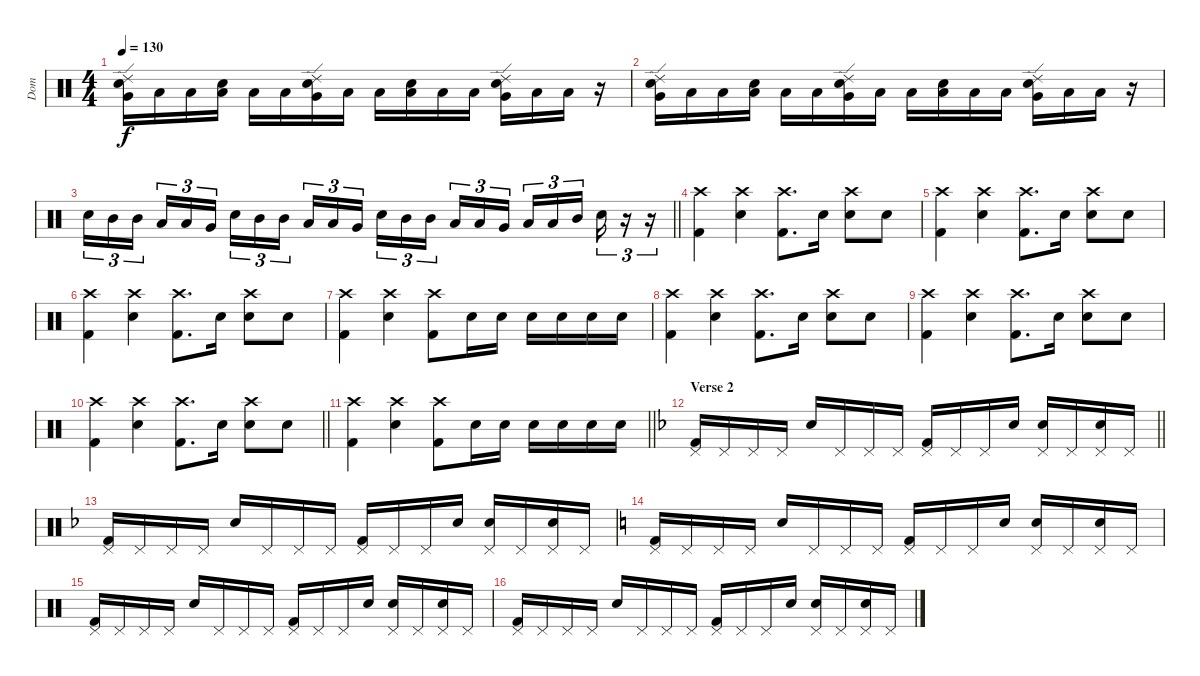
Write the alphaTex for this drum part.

\track ("Dom" "Dom") {instrument percussion}
\staff {score}
\articulation defaults
\ts (4 4)
\tempo 130
\clef neutral
\ks c
("Ride (edge) 2" "Snare (hit) 2" "Very Low Tom (hit)").16{dy f} "Low Floor Tom (hit)".16 "Low Floor Tom (hit)".16 ("Snare (hit) 2" "Low Floor Tom (hit)").16 "Low Floor Tom (hit)".16 "Low Floor Tom (hit)".16 ("Ride (edge) 2" "Snare (hit) 2" "Very Low Tom (hit)").16 "Low Floor Tom (hit)".16 "Low Floor Tom (hit)".16 ("Snare (hit) 2" "Low Floor Tom (hit)").16 "Low Floor Tom (hit)".16 "Low Floor Tom (hit)".16 ("Ride (edge) 2" "Snare (hit) 2" "Very Low Tom (hit)").16 "Low Floor Tom (hit)".16 "Low Floor Tom (hit)".16 r.16 |
("Ride (edge) 2" "Snare (hit) 2" "Very Low Tom (hit)").16 "Low Floor Tom (hit)".16 "Low Floor Tom (hit)".16 ("Snare (hit) 2" "Low Floor Tom (hit)").16 "Low Floor Tom (hit)".16 "Low Floor Tom (hit)".16 ("Ride (edge) 2" "Snare (hit) 2" "Very Low Tom (hit)").16 "Low Floor Tom (hit)".16 "Low Floor Tom (hit)".16 ("Snare (hit) 2" "Low Floor Tom (hit)").16 "Low Floor Tom (hit)".16 "Low Floor Tom (hit)".16 ("Ride (edge) 2" "Snare (hit) 2" "Very Low Tom (hit)").16 "Low Floor Tom (hit)".16 "Low Floor Tom (hit)".16 r.16 |
\barLineRight lightlight "Snare (hit) 2".16{tu (3 2)} "Mid Tom (hit)".16{tu (3 2)} "Mid Tom (hit)".16{tu (3 2) beam splitsecondary} "Low Tom (hit)".16{tu (3 2)} "Low Tom (hit)".16{tu (3 2)} "Very Low Tom (hit)".16{tu (3 2)} "Snare (hit) 2".16{tu (3 2)} "Mid Tom (hit)".16{tu (3 2)} "Mid Tom (hit)".16{tu (3 2) beam splitsecondary} "Low Tom (hit)".16{tu (3 2)} "Low Tom (hit)".16{tu (3 2)} "Very Low Tom (hit)".16{tu (3 2)} "Snare (hit) 2".16{tu (3 2)} "Mid Tom (hit)".16{tu (3 2)} "Mid Tom (hit)".16{tu (3 2) beam splitsecondary} "Low Tom (hit)".16{tu (3 2)} "Low Tom (hit)".16{tu (3 2)} "Very Low Tom (hit)".16{tu (3 2)} "Low Tom (hit)".16{tu (3 2)} "Low Tom (hit)".16{tu (3 2)} "Mid Tom (hit)".16{tu (3 2) beam splitsecondary} "Snare (hit) 2".16{tu (3 2)}
r.16{tu (3 2)} r.16{tu (3 2)} |
\section ("" "")
("Crash high (hit)" "Kick (hit) 2").4 ("Crash high (hit)" "Electric Snare (hit)").4 ("Crash high (hit)" "Kick (hit) 2").8{d} "Electric Snare (hit)".16 ("Crash high (hit)" "Electric Snare (hit)").8 "Electric Snare (hit)".8 |
("Crash high (hit)" "Kick (hit) 2").4 ("Crash high (hit)" "Electric Snare (hit)").4 ("Crash high (hit)" "Kick (hit) 2").8{d} "Electric Snare (hit)".16 ("Crash high (hit)" "Electric Snare (hit)").8 "Electric Snare (hit)".8 |
("Crash high (hit)" "Kick (hit) 2").4 ("Crash high (hit)" "Electric Snare (hit)").4 ("Crash high (hit)" "Kick (hit) 2").8{d} "Electric Snare (hit)".16 ("Crash high (hit)" "Electric Snare (hit)").8 "Electric Snare (hit)".8 |
("Crash high (hit)" "Kick (hit) 2").4 ("Crash high (hit)" "Electric Snare (hit)").4 ("Crash high (hit)" "Kick (hit) 2").8 "Electric Snare (hit)".16 "Electric Snare (hit)".16 "Electric Snare (hit)".16 "Electric Snare (hit)".16 "Electric Snare (hit)".16 "Electric Snare (hit)".16 |
("Crash high (hit)" "Kick (hit) 2").4 ("Crash high (hit)" "Electric Snare (hit)").4 ("Crash high (hit)" "Kick (hit) 2").8{d} "Electric Snare (hit)".16 ("Crash high (hit)" "Electric Snare (hit)").8 "Electric Snare (hit)".8 |
("Crash high (hit)" "Kick (hit) 2").4 ("Crash high (hit)" "Electric Snare (hit)").4 ("Crash high (hit)" "Kick (hit) 2").8{d} "Electric Snare (hit)".16 ("Crash high (hit)" "Electric Snare (hit)").8 "Electric Snare (hit)".8 |
\barLineRight lightlight
("Crash high (hit)" "Kick (hit) 2").4 ("Crash high (hit)" "Electric Snare (hit)").4 ("Crash high (hit)" "Kick (hit) 2").8{d} "Electric Snare (hit)".16 ("Crash high (hit)" "Electric Snare (hit)").8 "Electric Snare (hit)".8 |
\barLineRight lightlight
("Crash high (hit)" "Kick (hit) 2").4 ("Crash high (hit)" "Electric Snare (hit)").4 ("Crash high (hit)" "Kick (hit) 2").8 "Electric Snare (hit)".16 "Electric Snare (hit)".16 "Electric Snare (hit)".16 "Electric Snare (hit)".16 "Electric Snare (hit)".16 "Electric Snare (hit)".16 |
\section ("" "Verse 2")
\barLineRight lightlight
\ks f
("Pedal Hi-Hat (hit)" "Kick (hit) 2").16 "Pedal Hi-Hat (hit)".16 "Pedal Hi-Hat (hit)".16 "Pedal Hi-Hat (hit)".16 "Electric Snare (hit)".16 "Pedal Hi-Hat (hit)".16 "Pedal Hi-Hat (hit)".16 "Pedal Hi-Hat (hit)".16 ("Pedal Hi-Hat (hit)" "Kick (hit) 2").16 "Pedal Hi-Hat (hit)".16 "Pedal Hi-Hat (hit)".16 "Electric Snare (hit)".16 ("Pedal Hi-Hat (hit)" "Electric Snare (hit)").16 "Pedal Hi-Hat (hit)".16 ("Pedal Hi-Hat (hit)" "Electric Snare (hit)").16 "Pedal Hi-Hat (hit)".16 |
\section ("" "")
("Pedal Hi-Hat (hit)" "Kick (hit) 2").16 "Pedal Hi-Hat (hit)".16 "Pedal Hi-Hat (hit)".16 "Pedal Hi-Hat (hit)".16 "Electric Snare (hit)".16 "Pedal Hi-Hat (hit)".16 "Pedal Hi-Hat (hit)".16 "Pedal Hi-Hat (hit)".16 ("Pedal Hi-Hat (hit)" "Kick (hit) 2").16 "Pedal Hi-Hat (hit)".16 "Pedal Hi-Hat (hit)".16 "Electric Snare (hit)".16 ("Pedal Hi-Hat (hit)" "Electric Snare (hit)").16 "Pedal Hi-Hat (hit)".16 ("Pedal Hi-Hat (hit)" "Electric Snare (hit)").16 "Pedal Hi-Hat (hit)".16 |
\ks c
("Pedal Hi-Hat (hit)" "Kick (hit) 2").16 "Pedal Hi-Hat (hit)".16 "Pedal Hi-Hat (hit)".16 "Pedal Hi-Hat (hit)".16 "Electric Snare (hit)".16 "Pedal Hi-Hat (hit)".16 "Pedal Hi-Hat (hit)".16 "Pedal Hi-Hat (hit)".16 ("Pedal Hi-Hat (hit)" "Kick (hit) 2").16 "Pedal Hi-Hat (hit)".16 "Pedal Hi-Hat (hit)".16 "Electric Snare (hit)".16 ("Pedal Hi-Hat (hit)" "Electric Snare (hit)").16 "Pedal Hi-Hat (hit)".16 ("Pedal Hi-Hat (hit)" "Electric Snare (hit)").16 "Pedal Hi-Hat (hit)".16 |
("Pedal Hi-Hat (hit)" "Kick (hit) 2").16 "Pedal Hi-Hat (hit)".16 "Pedal Hi-Hat (hit)".16 "Pedal Hi-Hat (hit)".16 "Electric Snare (hit)".16 "Pedal Hi-Hat (hit)".16 "Pedal Hi-Hat (hit)".16 "Pedal Hi-Hat (hit)".16 ("Pedal Hi-Hat (hit)" "Kick (hit) 2").16 "Pedal Hi-Hat (hit)".16 "Pedal Hi-Hat (hit)".16 "Electric Snare (hit)".16 ("Pedal Hi-Hat (hit)" "Electric Snare (hit)").16 "Pedal Hi-Hat (hit)".16 ("Pedal Hi-Hat (hit)" "Electric Snare (hit)").16 "Pedal Hi-Hat (hit)".16 |
("Pedal Hi-Hat (hit)" "Kick (hit) 2").16 "Pedal Hi-Hat (hit)".16 "Pedal Hi-Hat (hit)".16 "Pedal Hi-Hat (hit)".16 "Electric Snare (hit)".16 "Pedal Hi-Hat (hit)".16 "Pedal Hi-Hat (hit)".16 "Pedal Hi-Hat (hit)".16 ("Pedal Hi-Hat (hit)" "Kick (hit) 2").16 "Pedal Hi-Hat (hit)".16 "Pedal Hi-Hat (hit)".16 "Electric Snare (hit)".16 ("Pedal Hi-Hat (hit)" "Electric Snare (hit)").16 "Pedal Hi-Hat (hit)".16 ("Pedal Hi-Hat (hit)" "Electric Snare (hit)").16 "Pedal Hi-Hat (hit)".16
